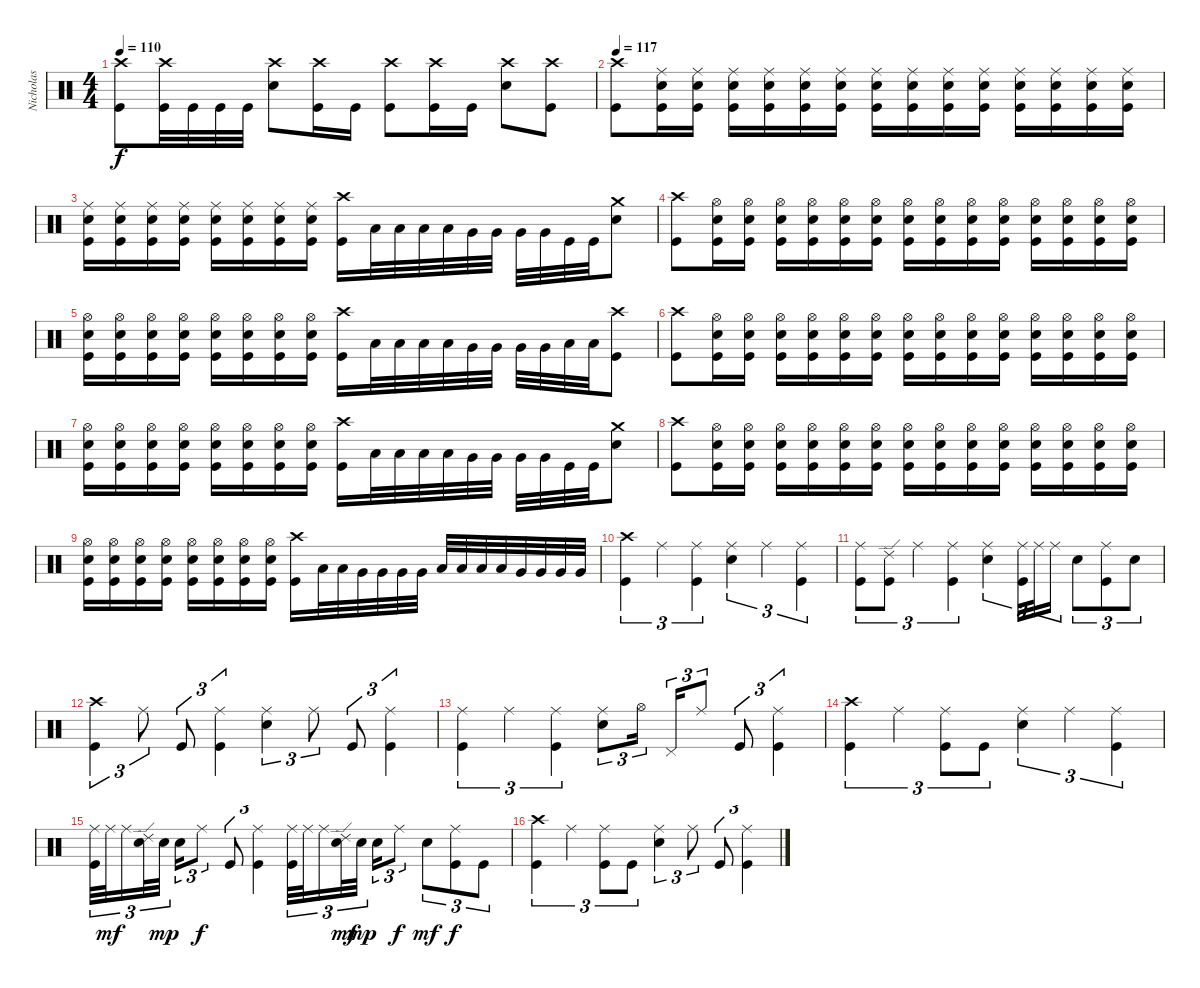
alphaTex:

\track ("Nicholas" "Nicholas") {instrument percussion}
\staff {score}
\articulation defaults
\ts (4 4)
\tempo 110
\clef neutral
\ks c
("Crash high (hit)" "Kick (hit)").8{dy f} ("Crash high (hit)" "Kick (hit)").32 "Kick (hit)".32 "Kick (hit)".32 "Kick (hit)".32 ("Crash high (hit)" "Electric Snare (hit)").8 ("Crash high (hit)" "Kick (hit)").16 "Kick (hit)".16 ("Crash high (hit)" "Kick (hit)").8 ("Crash high (hit)" "Kick (hit)").16 "Kick (hit)".16 ("Crash high (hit)" "Electric Snare (hit)").8 ("Crash high (hit)" "Kick (hit)").8 |
\tempo 117
("Crash high (hit)" "Kick (hit)").8 ("Ride (middle)" "Electric Snare (hit)" "Kick (hit)").16 ("Ride (middle)" "Electric Snare (hit)" "Kick (hit)").16 ("Ride (middle)" "Electric Snare (hit)" "Kick (hit)").16 ("Ride (middle)" "Electric Snare (hit)" "Kick (hit)").16 ("Ride (middle)" "Electric Snare (hit)" "Kick (hit)").16 ("Ride (middle)" "Electric Snare (hit)" "Kick (hit)").16 ("Ride (middle)" "Electric Snare (hit)" "Kick (hit)").16 ("Ride (middle)" "Electric Snare (hit)" "Kick (hit)").16 ("Ride (middle)" "Electric Snare (hit)" "Kick (hit)").16 ("Ride (middle)" "Electric Snare (hit)" "Kick (hit)").16 ("Ride (middle)" "Electric Snare (hit)" "Kick (hit)").16 ("Ride (middle)" "Electric Snare (hit)" "Kick (hit)").16 ("Ride (middle)" "Electric Snare (hit)" "Kick (hit)").16 ("Ride (middle)" "Electric Snare (hit)" "Kick (hit)").16 |
("Ride (middle)" "Electric Snare (hit)" "Kick (hit)").16 ("Ride (middle)" "Electric Snare (hit)" "Kick (hit)").16 ("Ride (middle)" "Electric Snare (hit)" "Kick (hit)").16 ("Ride (middle)" "Electric Snare (hit)" "Kick (hit)").16 ("Ride (middle)" "Electric Snare (hit)" "Kick (hit)").16 ("Ride (middle)" "Electric Snare (hit)" "Kick (hit)").16 ("Ride (middle)" "Electric Snare (hit)" "Kick (hit)").16 ("Ride (middle)" "Electric Snare (hit)" "Kick (hit)").16 ("Crash high (hit)" "Kick (hit)").16 "Low Tom (hit)".32 "Low Tom (hit)".32 "Low Tom (hit)".32 "Low Tom (hit)".32 "Very Low Tom (hit)".32 "Very Low Tom (hit)".32 "Very Low Tom (hit)".32 "Very Low Tom (hit)".32 "Kick (hit)".32 "Kick (hit)".32 ("Crash medium (hit)" "Electric Snare (hit)").8 |
("Crash high (hit)" "Kick (hit)").8 ("Hi-Hat (open)" "Electric Snare (hit)" "Kick (hit)").16 ("Hi-Hat (open)" "Electric Snare (hit)" "Kick (hit)").16 ("Hi-Hat (open)" "Electric Snare (hit)" "Kick (hit)").16 ("Hi-Hat (open)" "Electric Snare (hit)" "Kick (hit)").16 ("Hi-Hat (open)" "Electric Snare (hit)" "Kick (hit)").16 ("Hi-Hat (open)" "Electric Snare (hit)" "Kick (hit)").16 ("Hi-Hat (open)" "Electric Snare (hit)" "Kick (hit)").16 ("Hi-Hat (open)" "Electric Snare (hit)" "Kick (hit)").16 ("Hi-Hat (open)" "Electric Snare (hit)" "Kick (hit)").16 ("Hi-Hat (open)" "Electric Snare (hit)" "Kick (hit)").16 ("Hi-Hat (open)" "Electric Snare (hit)" "Kick (hit)").16 ("Hi-Hat (open)" "Electric Snare (hit)" "Kick (hit)").16 ("Hi-Hat (open)" "Electric Snare (hit)" "Kick (hit)").16 ("Hi-Hat (open)" "Electric Snare (hit)" "Kick (hit)").16 |
("Hi-Hat (open)" "Electric Snare (hit)" "Kick (hit)").16 ("Hi-Hat (open)" "Electric Snare (hit)" "Kick (hit)").16 ("Hi-Hat (open)" "Electric Snare (hit)" "Kick (hit)").16 ("Hi-Hat (open)" "Electric Snare (hit)" "Kick (hit)").16 ("Hi-Hat (open)" "Electric Snare (hit)" "Kick (hit)").16 ("Hi-Hat (open)" "Electric Snare (hit)" "Kick (hit)").16 ("Hi-Hat (open)" "Electric Snare (hit)" "Kick (hit)").16 ("Hi-Hat (open)" "Electric Snare (hit)" "Kick (hit)").16 ("Crash high (hit)" "Kick (hit)").16 "Low Floor Tom (hit)".32 "Low Floor Tom (hit)".32 "Low Floor Tom (hit)".32 "Low Floor Tom (hit)".32 "Very Low Tom (hit)".32 "Very Low Tom (hit)".32 "Very Low Tom (hit)".32 "Very Low Tom (hit)".32 "Low Floor Tom (hit)".32 "Low Floor Tom (hit)".32 ("Crash high (hit)" "Kick (hit)").8 |
("Crash high (hit)" "Kick (hit)").8 ("Hi-Hat (open)" "Electric Snare (hit)" "Kick (hit)").16 ("Hi-Hat (open)" "Electric Snare (hit)" "Kick (hit)").16 ("Hi-Hat (open)" "Electric Snare (hit)" "Kick (hit)").16 ("Hi-Hat (open)" "Electric Snare (hit)" "Kick (hit)").16 ("Hi-Hat (open)" "Electric Snare (hit)" "Kick (hit)").16 ("Hi-Hat (open)" "Electric Snare (hit)" "Kick (hit)").16 ("Hi-Hat (open)" "Electric Snare (hit)" "Kick (hit)").16 ("Hi-Hat (open)" "Electric Snare (hit)" "Kick (hit)").16 ("Hi-Hat (open)" "Electric Snare (hit)" "Kick (hit)").16 ("Hi-Hat (open)" "Electric Snare (hit)" "Kick (hit)").16 ("Hi-Hat (open)" "Electric Snare (hit)" "Kick (hit)").16 ("Hi-Hat (open)" "Electric Snare (hit)" "Kick (hit)").16 ("Hi-Hat (open)" "Electric Snare (hit)" "Kick (hit)").16 ("Hi-Hat (open)" "Electric Snare (hit)" "Kick (hit)").16 |
("Hi-Hat (open)" "Electric Snare (hit)" "Kick (hit)").16 ("Hi-Hat (open)" "Electric Snare (hit)" "Kick (hit)").16 ("Hi-Hat (open)" "Electric Snare (hit)" "Kick (hit)").16 ("Hi-Hat (open)" "Electric Snare (hit)" "Kick (hit)").16 ("Hi-Hat (open)" "Electric Snare (hit)" "Kick (hit)").16 ("Hi-Hat (open)" "Electric Snare (hit)" "Kick (hit)").16 ("Hi-Hat (open)" "Electric Snare (hit)" "Kick (hit)").16 ("Hi-Hat (open)" "Electric Snare (hit)" "Kick (hit)").16 ("Crash high (hit)" "Kick (hit)").16 "Low Tom (hit)".32 "Low Tom (hit)".32 "Low Tom (hit)".32 "Low Tom (hit)".32 "Very Low Tom (hit)".32 "Very Low Tom (hit)".32 "Very Low Tom (hit)".32 "Very Low Tom (hit)".32 "Kick (hit)".32 "Kick (hit)".32 ("Crash medium (hit)" "Electric Snare (hit)").8 |
("Crash high (hit)" "Kick (hit)").8 ("Hi-Hat (open)" "Electric Snare (hit)" "Kick (hit)").16 ("Hi-Hat (open)" "Electric Snare (hit)" "Kick (hit)").16 ("Hi-Hat (open)" "Electric Snare (hit)" "Kick (hit)").16 ("Hi-Hat (open)" "Electric Snare (hit)" "Kick (hit)").16 ("Hi-Hat (open)" "Electric Snare (hit)" "Kick (hit)").16 ("Hi-Hat (open)" "Electric Snare (hit)" "Kick (hit)").16 ("Hi-Hat (open)" "Electric Snare (hit)" "Kick (hit)").16 ("Hi-Hat (open)" "Electric Snare (hit)" "Kick (hit)").16 ("Hi-Hat (open)" "Electric Snare (hit)" "Kick (hit)").16 ("Hi-Hat (open)" "Electric Snare (hit)" "Kick (hit)").16 ("Hi-Hat (open)" "Electric Snare (hit)" "Kick (hit)").16 ("Hi-Hat (open)" "Electric Snare (hit)" "Kick (hit)").16 ("Hi-Hat (open)" "Electric Snare (hit)" "Kick (hit)").16 ("Hi-Hat (open)" "Electric Snare (hit)" "Kick (hit)").16 |
("Hi-Hat (open)" "Electric Snare (hit)" "Kick (hit)").16 ("Hi-Hat (open)" "Electric Snare (hit)" "Kick (hit)").16 ("Hi-Hat (open)" "Electric Snare (hit)" "Kick (hit)").16 ("Hi-Hat (open)" "Electric Snare (hit)" "Kick (hit)").16 ("Hi-Hat (open)" "Electric Snare (hit)" "Kick (hit)").16 ("Hi-Hat (open)" "Electric Snare (hit)" "Kick (hit)").16 ("Hi-Hat (open)" "Electric Snare (hit)" "Kick (hit)").16 ("Hi-Hat (open)" "Electric Snare (hit)" "Kick (hit)").16 ("Crash high (hit)" "Kick (hit)").16 "Low Floor Tom (hit)".32 "Low Floor Tom (hit)".32 "Very Low Tom (hit)".32 "Very Low Tom (hit)".32 "Very Low Tom (hit)".32 "Very Low Tom (hit)".32 "Low Tom (hit)".32 "Low Tom (hit)".32 "Low Tom (hit)".32 "Low Tom (hit)".32 "Very Low Tom (hit)".32 "Very Low Tom (hit)".32 "Very Low Tom (hit)".32 "Very Low Tom (hit)".32 |
("Crash high (hit)" "Kick (hit)").4{tu (3 2)} "Ride (middle)".4{tu (3 2)} ("Ride (middle)" "Kick (hit)").4{tu (3 2)} ("Ride (middle)" "Electric Snare (hit)").4{tu (3 2)} "Ride (middle)".4{tu (3 2)} ("Ride (middle)" "Kick (hit)").4{tu (3 2)} |
("Ride (middle)" "Kick (hit)").8{tu (3 2)} ("Ride (edge) 2" "Kick (hit)").8{tu (3 2)} "Ride (middle)".4{tu (3 2)} ("Ride (middle)" "Kick (hit)").4{tu (3 2)} ("Ride (middle)" "Electric Snare (hit)").4{tu (3 2)} ("Ride (middle)" "Kick (hit)").32{tu (3 2)} "Ride (middle)".32{tu (3 2)} "Ride (middle)".16{tu (3 2)} "Electric Snare (hit)".8{tu (3 2)} ("Ride (middle)" "Kick (hit)").8{tu (3 2)} "Electric Snare (hit)".8{tu (3 2)} |
("Crash high (hit)" "Kick (hit)").4{tu (3 2)} "Ride (middle)".8{tu (3 2)} "Kick (hit)".8{tu (3 2)} ("Ride (middle)" "Kick (hit)").4{tu (3 2)} ("Ride (middle)" "Electric Snare (hit)").4{tu (3 2)} "Ride (middle)".8{tu (3 2)} "Kick (hit)".8{tu (3 2)} ("Ride (middle)" "Kick (hit)").4{tu (3 2)} |
("Ride (middle)" "Kick (hit)").4{tu (3 2)} "Ride (middle)".4{tu (3 2)} ("Ride (middle)" "Kick (hit)").4{tu (3 2)} ("Ride (middle)" "Electric Snare (hit)").8{tu (3 2)} "Hi-Hat (open)".16{tu (3 2)} "Pedal Hi-Hat (hit)".16{tu (3 2)} "Ride (middle)".8{tu (3 2)} "Kick (hit)".8{tu (3 2)} ("Ride (middle)" "Kick (hit)").4{tu (3 2)} |
("Crash high (hit)" "Kick (hit)").4{tu (3 2)} "Ride (middle)".4{tu (3 2)} ("Ride (middle)" "Kick (hit)").8{tu (3 2)} "Kick (hit)".8{tu (3 2)} ("Ride (middle)" "Electric Snare (hit)").4{tu (3 2)} "Ride (middle)".4{tu (3 2)} ("Ride (middle)" "Kick (hit)").4{tu (3 2)} |
("Ride (middle)" "Kick (hit)").32{tu (3 2)} "Ride (middle)".32{tu (3 2) dy mf} "Ride (middle)".16{tu (3 2)} ("Ride (edge) 2" "Electric Snare (hit)").32{tu (3 2)} "Electric Snare (hit)".32{tu (3 2) dy mp} "Electric Snare (hit)".16{tu (3 2)} "Ride (middle)".8{tu (3 2) dy f} "Kick (hit)".8{tu (3 2)} ("Ride (middle)" "Kick (hit)").4{tu (3 2)} ("Ride (middle)" "Kick (hit)").32{tu (3 2)} "Ride (middle)".32{tu (3 2)} "Ride (middle)".16{tu (3 2)} ("Ride (edge) 2" "Electric Snare (hit)").32{tu (3 2) dy mf} "Electric Snare (hit)".32{tu (3 2) dy mp} "Electric Snare (hit)".16{tu (3 2)} "Ride (middle)".8{tu (3 2) dy f} "Electric Snare (hit)".8{tu (3 2) dy mf} ("Ride (middle)" "Kick (hit)").8{tu (3 2) dy f} "Kick (hit)".8{tu (3 2)} |
("Crash high (hit)" "Kick (hit)").4{tu (3 2)} "Ride (middle)".4{tu (3 2)} ("Ride (middle)" "Kick (hit)").8{tu (3 2)} "Kick (hit)".8{tu (3 2)} ("Ride (middle)" "Electric Snare (hit)").4{tu (3 2)} "Ride (middle)".8{tu (3 2)} "Kick (hit)".8{tu (3 2)} ("Ride (middle)" "Kick (hit)").4{tu (3 2)}
